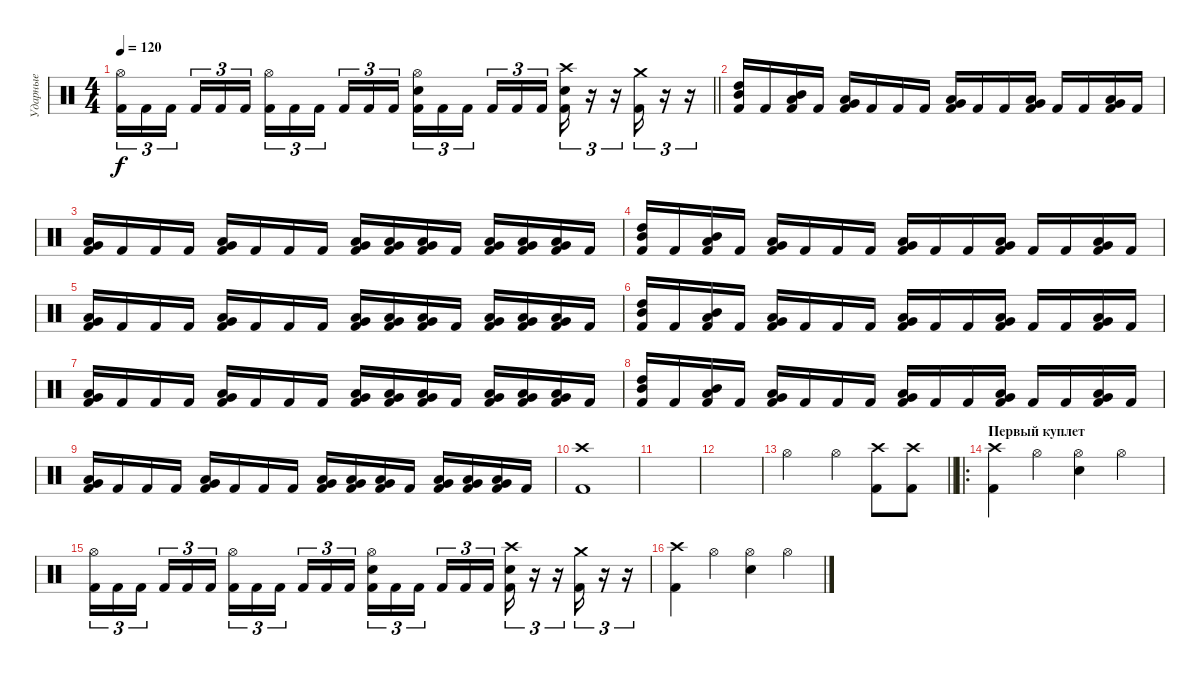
\track ("Ударные" "Ударные") {instrument percussion}
\staff {score}
\articulation defaults
\ts (4 4)
\tempo 120
\clef neutral
\barLineRight lightlight
\ks c
("Hi-Hat (open)" "Kick (hit) 2").16{tu (3 2) dy f} "Kick (hit) 2".16{tu (3 2)} "Kick (hit) 2".16{tu (3 2) beam splitsecondary} "Kick (hit) 2".16{tu (3 2)} "Kick (hit) 2".16{tu (3 2)} "Kick (hit) 2".16{tu (3 2)} ("Hi-Hat (open)" "Kick (hit) 2").16{tu (3 2)} "Kick (hit) 2".16{tu (3 2)} "Kick (hit) 2".16{tu (3 2) beam splitsecondary} "Kick (hit) 2".16{tu (3 2)} "Kick (hit) 2".16{tu (3 2)} "Kick (hit) 2".16{tu (3 2)} ("Hi-Hat (open)" "Snare (hit) 2" "Kick (hit) 2").16{tu (3 2)} "Kick (hit) 2".16{tu (3 2)} "Kick (hit) 2".16{tu (3 2) beam splitsecondary} "Kick (hit) 2".16{tu (3 2)} "Kick (hit) 2".16{tu (3 2)} "Kick (hit) 2".16{tu (3 2)} ("Crash high (hit)" "Snare (hit) 2" "Kick (hit) 2").16{tu (3 2)} r.16{tu (3 2)} r.16{tu (3 2)} ("Crash medium (hit)" "Kick (hit) 2").16{tu (3 2)} r.16{tu (3 2)} r.16{tu (3 2)} |
("High Tom (hit)" "Mid Tom (hit)" "Kick (hit) 2").16 "Kick (hit) 2".16 ("Mid Tom (hit)" "Low Tom (hit)" "Kick (hit) 2").16 "Kick (hit) 2".16 ("Low Tom (hit)" "Very Low Tom (hit)" "Kick (hit) 2").16 "Kick (hit) 2".16 "Kick (hit) 2".16 "Kick (hit) 2".16 ("Very Low Tom (hit)" "Low Floor Tom (hit)" "Kick (hit) 2").16 "Kick (hit) 2".16 "Kick (hit) 2".16 ("Very Low Tom (hit)" "Low Floor Tom (hit)" "Kick (hit) 2").16 "Kick (hit) 2".16 "Kick (hit) 2".16 ("Very Low Tom (hit)" "Low Floor Tom (hit)" "Kick (hit) 2").16 "Kick (hit) 2".16 |
("Low Floor Tom (hit)" "Very Low Tom (hit)" "Kick (hit) 2").16 "Kick (hit) 2".16 "Kick (hit) 2".16 "Kick (hit) 2".16 ("Low Floor Tom (hit)" "Very Low Tom (hit)" "Kick (hit) 2").16 "Kick (hit) 2".16 "Kick (hit) 2".16 "Kick (hit) 2".16 ("Low Floor Tom (hit)" "Very Low Tom (hit)" "Kick (hit) 2").16 ("Low Floor Tom (hit)" "Very Low Tom (hit)" "Kick (hit) 2").16 ("Low Floor Tom (hit)" "Very Low Tom (hit)" "Kick (hit) 2").16 "Kick (hit) 2".16 ("Low Floor Tom (hit)" "Very Low Tom (hit)" "Kick (hit) 2").16 ("Low Floor Tom (hit)" "Very Low Tom (hit)" "Kick (hit) 2").16 ("Low Floor Tom (hit)" "Very Low Tom (hit)" "Kick (hit) 2").16 "Kick (hit) 2".16 |
("High Tom (hit)" "Mid Tom (hit)" "Kick (hit) 2").16 "Kick (hit) 2".16 ("Mid Tom (hit)" "Low Tom (hit)" "Kick (hit) 2").16 "Kick (hit) 2".16 ("Low Tom (hit)" "Very Low Tom (hit)" "Kick (hit) 2").16 "Kick (hit) 2".16 "Kick (hit) 2".16 "Kick (hit) 2".16 ("Very Low Tom (hit)" "Low Floor Tom (hit)" "Kick (hit) 2").16 "Kick (hit) 2".16 "Kick (hit) 2".16 ("Very Low Tom (hit)" "Low Floor Tom (hit)" "Kick (hit) 2").16 "Kick (hit) 2".16 "Kick (hit) 2".16 ("Very Low Tom (hit)" "Low Floor Tom (hit)" "Kick (hit) 2").16 "Kick (hit) 2".16 |
("Low Floor Tom (hit)" "Very Low Tom (hit)" "Kick (hit) 2").16 "Kick (hit) 2".16 "Kick (hit) 2".16 "Kick (hit) 2".16 ("Low Floor Tom (hit)" "Very Low Tom (hit)" "Kick (hit) 2").16 "Kick (hit) 2".16 "Kick (hit) 2".16 "Kick (hit) 2".16 ("Low Floor Tom (hit)" "Very Low Tom (hit)" "Kick (hit) 2").16 ("Low Floor Tom (hit)" "Very Low Tom (hit)" "Kick (hit) 2").16 ("Low Floor Tom (hit)" "Very Low Tom (hit)" "Kick (hit) 2").16 "Kick (hit) 2".16 ("Low Floor Tom (hit)" "Very Low Tom (hit)" "Kick (hit) 2").16 ("Low Floor Tom (hit)" "Very Low Tom (hit)" "Kick (hit) 2").16 ("Low Floor Tom (hit)" "Very Low Tom (hit)" "Kick (hit) 2").16 "Kick (hit) 2".16 |
("High Tom (hit)" "Mid Tom (hit)" "Kick (hit) 2").16 "Kick (hit) 2".16 ("Mid Tom (hit)" "Low Tom (hit)" "Kick (hit) 2").16 "Kick (hit) 2".16 ("Low Tom (hit)" "Very Low Tom (hit)" "Kick (hit) 2").16 "Kick (hit) 2".16 "Kick (hit) 2".16 "Kick (hit) 2".16 ("Very Low Tom (hit)" "Low Floor Tom (hit)" "Kick (hit) 2").16 "Kick (hit) 2".16 "Kick (hit) 2".16 ("Very Low Tom (hit)" "Low Floor Tom (hit)" "Kick (hit) 2").16 "Kick (hit) 2".16 "Kick (hit) 2".16 ("Very Low Tom (hit)" "Low Floor Tom (hit)" "Kick (hit) 2").16 "Kick (hit) 2".16 |
("Low Floor Tom (hit)" "Very Low Tom (hit)" "Kick (hit) 2").16 "Kick (hit) 2".16 "Kick (hit) 2".16 "Kick (hit) 2".16 ("Low Floor Tom (hit)" "Very Low Tom (hit)" "Kick (hit) 2").16 "Kick (hit) 2".16 "Kick (hit) 2".16 "Kick (hit) 2".16 ("Low Floor Tom (hit)" "Very Low Tom (hit)" "Kick (hit) 2").16 ("Low Floor Tom (hit)" "Very Low Tom (hit)" "Kick (hit) 2").16 ("Low Floor Tom (hit)" "Very Low Tom (hit)" "Kick (hit) 2").16 "Kick (hit) 2".16 ("Low Floor Tom (hit)" "Very Low Tom (hit)" "Kick (hit) 2").16 ("Low Floor Tom (hit)" "Very Low Tom (hit)" "Kick (hit) 2").16 ("Low Floor Tom (hit)" "Very Low Tom (hit)" "Kick (hit) 2").16 "Kick (hit) 2".16 |
("High Tom (hit)" "Mid Tom (hit)" "Kick (hit) 2").16 "Kick (hit) 2".16 ("Mid Tom (hit)" "Low Tom (hit)" "Kick (hit) 2").16 "Kick (hit) 2".16 ("Low Tom (hit)" "Very Low Tom (hit)" "Kick (hit) 2").16 "Kick (hit) 2".16 "Kick (hit) 2".16 "Kick (hit) 2".16 ("Very Low Tom (hit)" "Low Floor Tom (hit)" "Kick (hit) 2").16 "Kick (hit) 2".16 "Kick (hit) 2".16 ("Very Low Tom (hit)" "Low Floor Tom (hit)" "Kick (hit) 2").16 "Kick (hit) 2".16 "Kick (hit) 2".16 ("Very Low Tom (hit)" "Low Floor Tom (hit)" "Kick (hit) 2").16 "Kick (hit) 2".16 |
("Low Floor Tom (hit)" "Very Low Tom (hit)" "Kick (hit) 2").16 "Kick (hit) 2".16 "Kick (hit) 2".16 "Kick (hit) 2".16 ("Low Floor Tom (hit)" "Very Low Tom (hit)" "Kick (hit) 2").16 "Kick (hit) 2".16 "Kick (hit) 2".16 "Kick (hit) 2".16 ("Low Floor Tom (hit)" "Very Low Tom (hit)" "Kick (hit) 2").16 ("Low Floor Tom (hit)" "Very Low Tom (hit)" "Kick (hit) 2").16 ("Low Floor Tom (hit)" "Very Low Tom (hit)" "Kick (hit) 2").16 "Kick (hit) 2".16 ("Low Floor Tom (hit)" "Very Low Tom (hit)" "Kick (hit) 2").16 ("Low Floor Tom (hit)" "Very Low Tom (hit)" "Kick (hit) 2").16 ("Low Floor Tom (hit)" "Very Low Tom (hit)" "Kick (hit) 2").16 "Kick (hit) 2".16 |
("Crash high (hit)" "Kick (hit) 2").1 |
|
|
\barLineRight lightlight "Hi-Hat (open)".2 "Hi-Hat (open)".4
("Crash high (hit)" "Kick (hit) 2").8 ("Crash high (hit)" "Kick (hit) 2").8 |
\ro
\section ("" "Первый куплет")
("Crash high (hit)" "Kick (hit) 2").4 "Hi-Hat (open)".4 ("Hi-Hat (open)" "Snare (hit) 2").4 "Hi-Hat (open)".4 |
("Hi-Hat (open)" "Kick (hit) 2").16{tu (3 2)} "Kick (hit) 2".16{tu (3 2)} "Kick (hit) 2".16{tu (3 2) beam splitsecondary} "Kick (hit) 2".16{tu (3 2)} "Kick (hit) 2".16{tu (3 2)} "Kick (hit) 2".16{tu (3 2)} ("Hi-Hat (open)" "Kick (hit) 2").16{tu (3 2)} "Kick (hit) 2".16{tu (3 2)} "Kick (hit) 2".16{tu (3 2) beam splitsecondary} "Kick (hit) 2".16{tu (3 2)} "Kick (hit) 2".16{tu (3 2)} "Kick (hit) 2".16{tu (3 2)} ("Hi-Hat (open)" "Snare (hit) 2" "Kick (hit) 2").16{tu (3 2)} "Kick (hit) 2".16{tu (3 2)} "Kick (hit) 2".16{tu (3 2) beam splitsecondary} "Kick (hit) 2".16{tu (3 2)} "Kick (hit) 2".16{tu (3 2)} "Kick (hit) 2".16{tu (3 2)} ("Crash high (hit)" "Snare (hit) 2" "Kick (hit) 2").16{tu (3 2)} r.16{tu (3 2)} r.16{tu (3 2)} ("Crash medium (hit)" "Kick (hit) 2").16{tu (3 2)} r.16{tu (3 2)} r.16{tu (3 2)} |
("Crash high (hit)" "Kick (hit) 2").4 "Hi-Hat (open)".4 ("Hi-Hat (open)" "Snare (hit) 2").4 "Hi-Hat (open)".4
